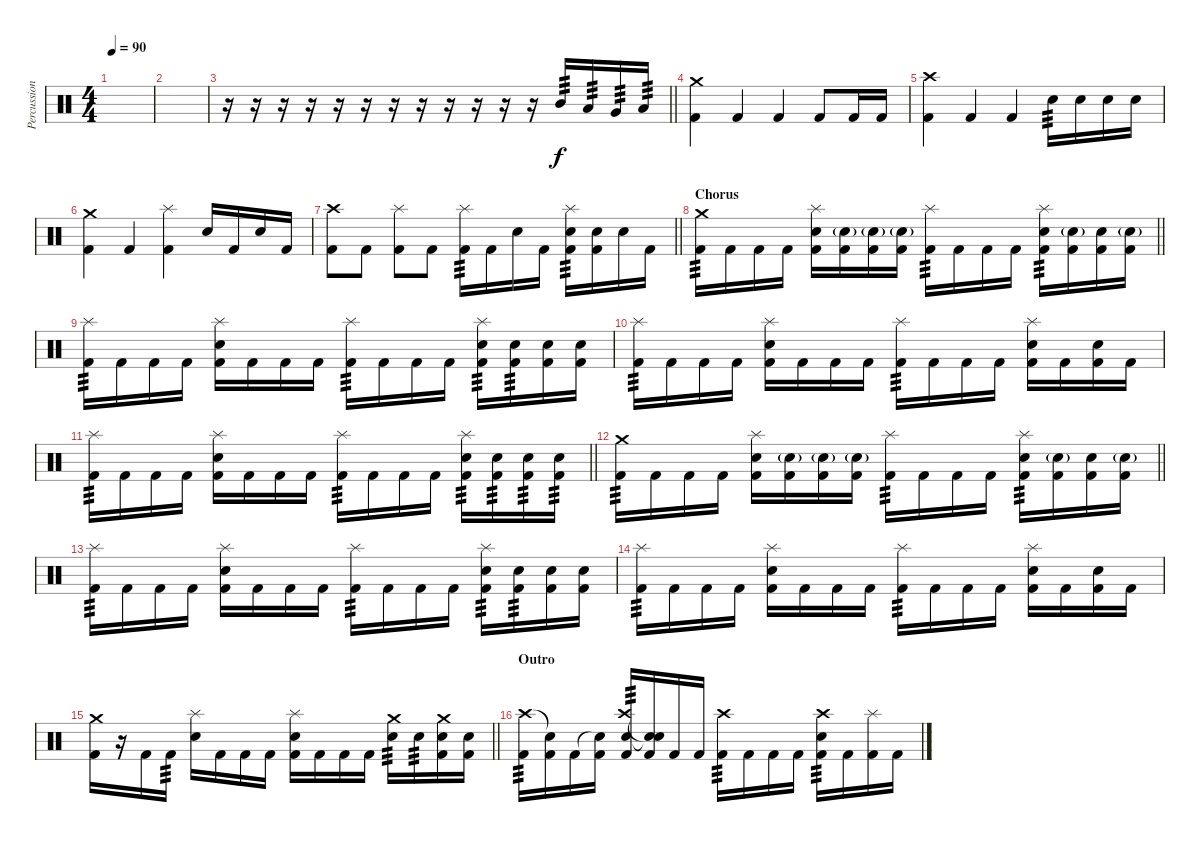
\track ("Percussion" "Percussion") {instrument percussion}
\staff {score}
\articulation defaults
\ts (4 4)
\tempo 90
\clef neutral
\ks c
|
|
\barLineRight lightlight
r.16 r.16 r.16 r.16 r.16 r.16 r.16 r.16 r.16 r.16 r.16 r.16 "Mid Tom (hit)".16{tp 3} "Low Tom (hit)".16{tp 3} "Very Low Tom (hit)".16{tp 3} "Low Floor Tom (hit)".16{tp 3} |
("Crash medium (hit)" "Kick (hit) 2").4 "Kick (hit) 2".4 "Kick (hit) 2".4 "Kick (hit) 2".8 "Kick (hit) 2".16 "Kick (hit) 2".16 |
("Crash high (hit)" "Kick (hit) 2").4 "Kick (hit) 2".4 "Kick (hit) 2".4 "Snare (hit) 2".16{tp 3} "Snare (hit) 2".16 "Snare (hit) 2".16 "Snare (hit) 2".16 |
("Crash medium (hit)" "Kick (hit) 2").4 "Kick (hit) 2".4 ("Splash (hit)" "Kick (hit) 2").4 "Snare (hit) 2".16 "Kick (hit) 2".16 "Snare (hit) 2".16 "Kick (hit) 2".16 |
\barLineRight lightlight
("Crash high (hit)" "Kick (hit) 2").8 "Kick (hit) 2".8 ("Splash (hit)" "Kick (hit) 2").8 "Kick (hit) 2".8 ("Splash (hit)" "Kick (hit) 2").16{tp 3} "Kick (hit) 2".16 "Snare (hit) 2".16 "Kick (hit) 2".16 ("Splash (hit)" "Snare (hit) 2" "Kick (hit) 2").16{tp 3} ("Snare (hit) 2" "Kick (hit) 2").16 "Snare (hit) 2".16 "Kick (hit) 2".16 |
\section ("" "Chorus")
\barLineRight lightlight
("Crash medium (hit)" "Kick (hit) 2").16{tp 3} "Kick (hit) 2".16 "Kick (hit) 2".16 "Kick (hit) 2".16 ("Splash (hit)" "Snare (hit) 2" "Kick (hit) 2").16 ("Snare (hit) 2"{g} "Kick (hit) 2").16 ("Snare (hit) 2"{g} "Kick (hit) 2").16 ("Snare (hit) 2"{g} "Kick (hit) 2").16 ("Splash (hit)" "Kick (hit) 2").16{tp 3} "Kick (hit) 2".16 "Kick (hit) 2".16 "Kick (hit) 2".16 ("Splash (hit)" "Snare (hit) 2" "Kick (hit) 2").16{tp 3} ("Snare (hit) 2"{g} "Kick (hit) 2").16 ("Snare (hit) 2" "Kick (hit) 2").16 ("Snare (hit) 2"{g} "Kick (hit) 2").16 |
("Splash (hit)" "Kick (hit) 2").16{tp 3} "Kick (hit) 2".16 "Kick (hit) 2".16 "Kick (hit) 2".16 ("Splash (hit)" "Snare (hit) 2" "Kick (hit) 2").16 "Kick (hit) 2".16 "Kick (hit) 2".16 "Kick (hit) 2".16 ("Splash (hit)" "Kick (hit) 2").16{tp 3} "Kick (hit) 2".16 "Kick (hit) 2".16 "Kick (hit) 2".16 ("Splash (hit)" "Snare (hit) 2" "Kick (hit) 2").16{tp 3} ("Snare (hit) 2" "Kick (hit) 2").16{tp 3} ("Snare (hit) 2" "Kick (hit) 2").16 ("Snare (hit) 2" "Kick (hit) 2").16 |
("Splash (hit)" "Kick (hit) 2").16{tp 3} "Kick (hit) 2".16 "Kick (hit) 2".16 "Kick (hit) 2".16 ("Splash (hit)" "Snare (hit) 2" "Kick (hit) 2").16 "Kick (hit) 2".16 "Kick (hit) 2".16 "Kick (hit) 2".16 ("Splash (hit)" "Kick (hit) 2").16{tp 3} "Kick (hit) 2".16 "Kick (hit) 2".16 "Kick (hit) 2".16 ("Splash (hit)" "Snare (hit) 2" "Kick (hit) 2").16 "Kick (hit) 2".16 ("Snare (hit) 2" "Kick (hit) 2").16 "Kick (hit) 2".16 |
\barLineRight lightlight
("Splash (hit)" "Kick (hit) 2").16{tp 3} "Kick (hit) 2".16 "Kick (hit) 2".16 "Kick (hit) 2".16 ("Splash (hit)" "Snare (hit) 2" "Kick (hit) 2").16 "Kick (hit) 2".16 "Kick (hit) 2".16 "Kick (hit) 2".16 ("Splash (hit)" "Kick (hit) 2").16{tp 3} "Kick (hit) 2".16 "Kick (hit) 2".16 "Kick (hit) 2".16 ("Splash (hit)" "Snare (hit) 2" "Kick (hit) 2").16{tp 3} ("Snare (hit) 2" "Kick (hit) 2").16{tp 3} ("Snare (hit) 2" "Kick (hit) 2").16{tp 3} ("Snare (hit) 2" "Kick (hit) 2").16{tp 3} |
\barLineRight lightlight
("Crash medium (hit)" "Kick (hit) 2").16{tp 3} "Kick (hit) 2".16 "Kick (hit) 2".16 "Kick (hit) 2".16 ("Splash (hit)" "Snare (hit) 2" "Kick (hit) 2").16 ("Snare (hit) 2"{g} "Kick (hit) 2").16 ("Snare (hit) 2"{g} "Kick (hit) 2").16 ("Snare (hit) 2"{g} "Kick (hit) 2").16 ("Splash (hit)" "Kick (hit) 2").16{tp 3} "Kick (hit) 2".16 "Kick (hit) 2".16 "Kick (hit) 2".16 ("Splash (hit)" "Snare (hit) 2" "Kick (hit) 2").16{tp 3} ("Snare (hit) 2"{g} "Kick (hit) 2").16 ("Snare (hit) 2" "Kick (hit) 2").16 ("Snare (hit) 2"{g} "Kick (hit) 2").16 |
("Splash (hit)" "Kick (hit) 2").16{tp 3} "Kick (hit) 2".16 "Kick (hit) 2".16 "Kick (hit) 2".16 ("Splash (hit)" "Snare (hit) 2" "Kick (hit) 2").16 "Kick (hit) 2".16 "Kick (hit) 2".16 "Kick (hit) 2".16 ("Splash (hit)" "Kick (hit) 2").16{tp 3} "Kick (hit) 2".16 "Kick (hit) 2".16 "Kick (hit) 2".16 ("Splash (hit)" "Snare (hit) 2" "Kick (hit) 2").16{tp 3} ("Snare (hit) 2" "Kick (hit) 2").16{tp 3} ("Snare (hit) 2" "Kick (hit) 2").16 ("Snare (hit) 2" "Kick (hit) 2").16 |
("Splash (hit)" "Kick (hit) 2").16{tp 3} "Kick (hit) 2".16 "Kick (hit) 2".16 "Kick (hit) 2".16 ("Splash (hit)" "Snare (hit) 2" "Kick (hit) 2").16 "Kick (hit) 2".16 "Kick (hit) 2".16 "Kick (hit) 2".16 ("Splash (hit)" "Kick (hit) 2").16{tp 3} "Kick (hit) 2".16 "Kick (hit) 2".16 "Kick (hit) 2".16 ("Splash (hit)" "Snare (hit) 2" "Kick (hit) 2").16 "Kick (hit) 2".16 ("Snare (hit) 2" "Kick (hit) 2").16 "Kick (hit) 2".16 |
\barLineRight lightlight
("Crash medium (hit)" "Kick (hit) 2").16 r.16 "Kick (hit) 2".16 "Kick (hit) 2".16{tp 3} ("Splash (hit)" "Snare (hit) 2").16 "Kick (hit) 2".16 "Kick (hit) 2".16 "Kick (hit) 2".16 ("Splash (hit)" "Snare (hit) 2" "Kick (hit) 2").16 "Kick (hit) 2".16 "Kick (hit) 2".16 "Kick (hit) 2".16 ("Crash medium (hit)" "Snare (hit) 2").16{tp 3} "Snare (hit) 2".16{tp 3} ("Crash medium (hit)" "Snare (hit) 2" "Kick (hit) 2").16 ("Snare (hit) 2" "Kick (hit) 2").16 |
\section ("" "Outro")
("Crash high (hit)" "Kick (hit) 2").16{tp 3} ("Snare (hit)"{t} "Kick (hit) 2").16 "Kick (hit) 2".16 ("Snare (hit)"{t} "Kick (hit) 2").16 ("Crash high (hit)" "Snare (hit) 2" "Kick (hit) 2").16{tp 3} ("Snare (hit)"{t} "Snare (hit)"{t} "Kick (hit) 2").16 "Kick (hit) 2".16 "Kick (hit) 2".16 ("Crash high (hit)" "Kick (hit) 2").16{tp 3} "Kick (hit) 2".16 "Kick (hit) 2".16 "Kick (hit) 2".16 ("Crash high (hit)" "Snare (hit) 2" "Kick (hit) 2").16{tp 3} "Kick (hit) 2".16 ("Splash (hit)" "Kick (hit) 2").16 "Kick (hit) 2".16
